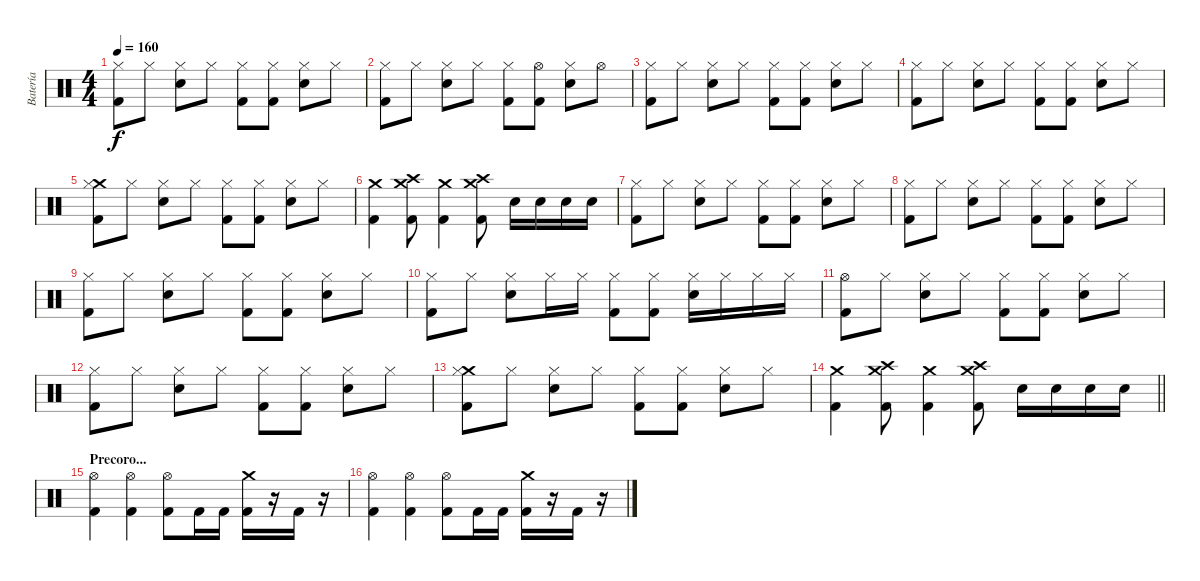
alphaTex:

\track ("Batería" "Batería") {instrument percussion}
\staff {score}
\articulation defaults
\ts (4 4)
\tempo 160
\clef neutral
\ks c
("Hi-Hat (closed)" "Kick (hit) 2").8{dy f} "Hi-Hat (closed)".8 ("Hi-Hat (closed)" "Snare (hit) 2").8 "Hi-Hat (closed)".8 ("Hi-Hat (closed)" "Kick (hit) 2").8 ("Hi-Hat (closed)" "Kick (hit) 2").8 ("Hi-Hat (closed)" "Snare (hit) 2").8 "Hi-Hat (closed)".8 |
("Hi-Hat (closed)" "Kick (hit) 2").8 "Hi-Hat (closed)".8 ("Hi-Hat (closed)" "Snare (hit) 2").8 "Hi-Hat (closed)".8 ("Hi-Hat (closed)" "Kick (hit) 2").8 ("Hi-Hat (open)" "Kick (hit) 2").8 ("Hi-Hat (closed)" "Snare (hit) 2").8 "Hi-Hat (open)".8 |
("Hi-Hat (closed)" "Kick (hit) 2").8 "Hi-Hat (closed)".8 ("Hi-Hat (closed)" "Snare (hit) 2").8 "Hi-Hat (closed)".8 ("Hi-Hat (closed)" "Kick (hit) 2").8 ("Hi-Hat (closed)" "Kick (hit) 2").8 ("Hi-Hat (closed)" "Snare (hit) 2").8 "Hi-Hat (closed)".8 |
("Hi-Hat (closed)" "Kick (hit) 2").8 "Hi-Hat (closed)".8 ("Hi-Hat (closed)" "Snare (hit) 2").8 "Hi-Hat (closed)".8 ("Hi-Hat (closed)" "Kick (hit) 2").8 ("Hi-Hat (closed)" "Kick (hit) 2").8 ("Hi-Hat (closed)" "Snare (hit) 2").8 "Hi-Hat (closed)".8 |
("Crash medium (hit)" "Hi-Hat (closed)" "Kick (hit) 2").8 "Hi-Hat (closed)".8 ("Hi-Hat (closed)" "Snare (hit) 2").8 "Hi-Hat (closed)".8 ("Hi-Hat (closed)" "Kick (hit) 2").8 ("Hi-Hat (closed)" "Kick (hit) 2").8 ("Hi-Hat (closed)" "Snare (hit) 2").8 "Hi-Hat (closed)".8 |
("Crash medium (hit)" "Kick (hit) 2").4 ("Crash high (hit)" "Crash medium (hit)" "Kick (hit) 2").8 ("Crash medium (hit)" "Kick (hit) 2").4 ("Crash high (hit)" "Crash medium (hit)" "Kick (hit) 2").8 "Snare (hit) 2".16 "Snare (hit) 2".16 "Snare (hit) 2".16 "Snare (hit) 2".16 |
("Hi-Hat (closed)" "Kick (hit) 2").8 "Hi-Hat (closed)".8 ("Hi-Hat (closed)" "Snare (hit) 2").8 "Hi-Hat (closed)".8 ("Hi-Hat (closed)" "Kick (hit) 2").8 ("Hi-Hat (closed)" "Kick (hit) 2").8 ("Hi-Hat (closed)" "Snare (hit) 2").8 "Hi-Hat (closed)".8 |
("Hi-Hat (closed)" "Kick (hit) 2").8 "Hi-Hat (closed)".8 ("Hi-Hat (closed)" "Snare (hit) 2").8 "Hi-Hat (closed)".8 ("Hi-Hat (closed)" "Kick (hit) 2").8 ("Hi-Hat (closed)" "Kick (hit) 2").8 ("Hi-Hat (closed)" "Snare (hit) 2").8 "Hi-Hat (closed)".8 |
("Hi-Hat (closed)" "Kick (hit) 2").8 "Hi-Hat (closed)".8 ("Hi-Hat (closed)" "Snare (hit) 2").8 "Hi-Hat (closed)".8 ("Hi-Hat (closed)" "Kick (hit) 2").8 ("Hi-Hat (closed)" "Kick (hit) 2").8 ("Hi-Hat (closed)" "Snare (hit) 2").8 "Hi-Hat (closed)".8 |
("Hi-Hat (closed)" "Kick (hit) 2").8 "Hi-Hat (closed)".8 ("Hi-Hat (closed)" "Snare (hit) 2").8 "Hi-Hat (closed)".16 "Hi-Hat (closed)".16 ("Hi-Hat (closed)" "Kick (hit) 2").8 ("Hi-Hat (closed)" "Kick (hit) 2").8 ("Hi-Hat (closed)" "Snare (hit) 2").16 "Hi-Hat (closed)".16 "Hi-Hat (closed)".16 "Hi-Hat (closed)".16 |
("Hi-Hat (open)" "Kick (hit) 2").8 "Hi-Hat (closed)".8 ("Hi-Hat (closed)" "Snare (hit) 2").8 "Hi-Hat (closed)".8 ("Hi-Hat (closed)" "Kick (hit) 2").8 ("Hi-Hat (closed)" "Kick (hit) 2").8 ("Hi-Hat (closed)" "Snare (hit) 2").8 "Hi-Hat (closed)".8 |
("Hi-Hat (closed)" "Kick (hit) 2").8 "Hi-Hat (closed)".8 ("Hi-Hat (closed)" "Snare (hit) 2").8 "Hi-Hat (closed)".8 ("Hi-Hat (closed)" "Kick (hit) 2").8 ("Hi-Hat (closed)" "Kick (hit) 2").8 ("Hi-Hat (closed)" "Snare (hit) 2").8 "Hi-Hat (closed)".8 |
("Crash medium (hit)" "Hi-Hat (closed)" "Kick (hit) 2").8 "Hi-Hat (closed)".8 ("Hi-Hat (closed)" "Snare (hit) 2").8 "Hi-Hat (closed)".8 ("Hi-Hat (closed)" "Kick (hit) 2").8 ("Hi-Hat (closed)" "Kick (hit) 2").8 ("Hi-Hat (closed)" "Snare (hit) 2").8 "Hi-Hat (closed)".8 |
\barLineRight lightlight
("Crash medium (hit)" "Kick (hit) 2").4 ("Crash high (hit)" "Crash medium (hit)" "Kick (hit) 2").8 ("Crash medium (hit)" "Kick (hit) 2").4 ("Crash high (hit)" "Crash medium (hit)" "Kick (hit) 2").8 "Snare (hit) 2".16 "Snare (hit) 2".16 "Snare (hit) 2".16 "Snare (hit) 2".16 |
\section ("" "Precoro...")
("Hi-Hat (open)" "Kick (hit) 2").4 ("Hi-Hat (open)" "Kick (hit) 2").4 ("Hi-Hat (open)" "Kick (hit) 2").8 "Kick (hit) 2".16 "Kick (hit) 2".16 ("Crash medium (hit)" "Kick (hit) 2").16 r.16 "Kick (hit) 2".16 r.16 |
("Hi-Hat (open)" "Kick (hit) 2").4 ("Hi-Hat (open)" "Kick (hit) 2").4 ("Hi-Hat (open)" "Kick (hit) 2").8 "Kick (hit) 2".16 "Kick (hit) 2".16 ("Crash medium (hit)" "Kick (hit) 2").16 r.16 "Kick (hit) 2".16 r.16
